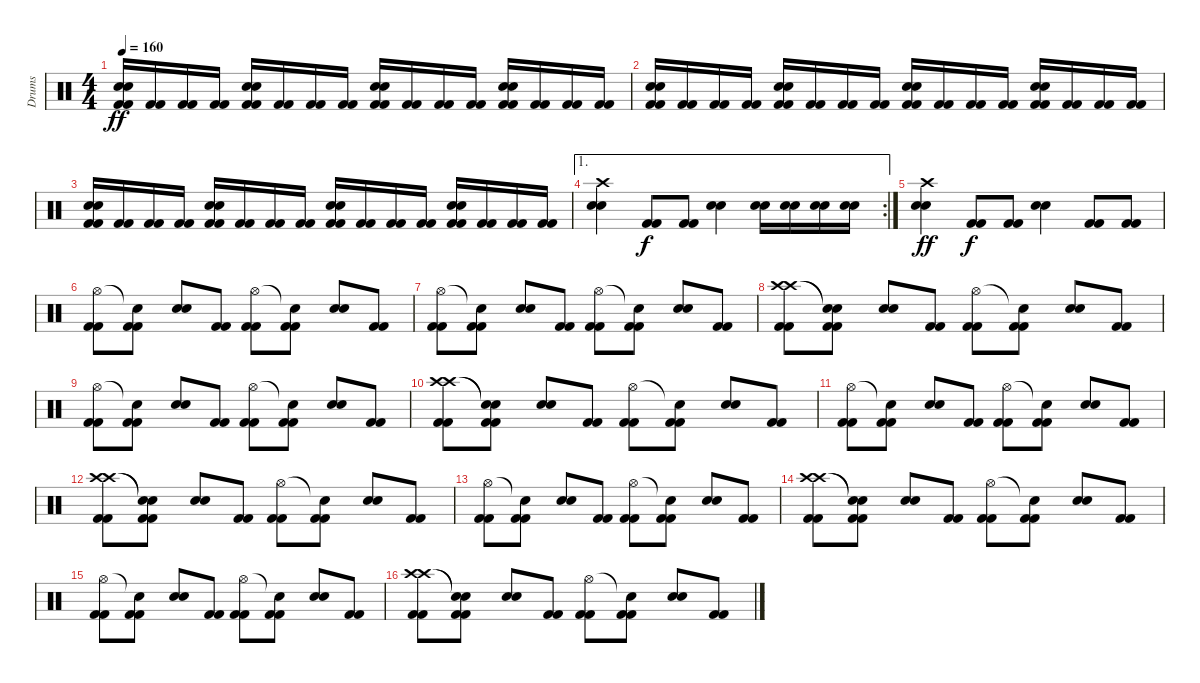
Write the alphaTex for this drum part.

\track ("Drums" "Drums") {instrument percussion}
\staff {score}
\articulation defaults
\ts (4 4)
\tempo 160
\clef neutral
\ks c
("Electric Snare (hit)" "Electric Snare (hit)" "Kick (hit) 2" "Kick (hit) 2").16{dy ff} ("Kick (hit) 2" "Kick (hit) 2").16 ("Kick (hit) 2" "Kick (hit) 2").16 ("Kick (hit) 2" "Kick (hit) 2").16 ("Electric Snare (hit)" "Electric Snare (hit)" "Kick (hit) 2" "Kick (hit) 2").16 ("Kick (hit) 2" "Kick (hit) 2").16 ("Kick (hit) 2" "Kick (hit) 2").16 ("Kick (hit) 2" "Kick (hit) 2").16 ("Electric Snare (hit)" "Electric Snare (hit)" "Kick (hit) 2" "Kick (hit) 2").16 ("Kick (hit) 2" "Kick (hit) 2").16 ("Kick (hit) 2" "Kick (hit) 2").16 ("Kick (hit) 2" "Kick (hit) 2").16 ("Electric Snare (hit)" "Electric Snare (hit)" "Kick (hit) 2" "Kick (hit) 2").16 ("Kick (hit) 2" "Kick (hit) 2").16 ("Kick (hit) 2" "Kick (hit) 2").16 ("Kick (hit) 2" "Kick (hit) 2").16 |
("Electric Snare (hit)" "Electric Snare (hit)" "Kick (hit) 2" "Kick (hit) 2").16 ("Kick (hit) 2" "Kick (hit) 2").16 ("Kick (hit) 2" "Kick (hit) 2").16 ("Kick (hit) 2" "Kick (hit) 2").16 ("Electric Snare (hit)" "Electric Snare (hit)" "Kick (hit) 2" "Kick (hit) 2").16 ("Kick (hit) 2" "Kick (hit) 2").16 ("Kick (hit) 2" "Kick (hit) 2").16 ("Kick (hit) 2" "Kick (hit) 2").16 ("Electric Snare (hit)" "Electric Snare (hit)" "Kick (hit) 2" "Kick (hit) 2").16 ("Kick (hit) 2" "Kick (hit) 2").16 ("Kick (hit) 2" "Kick (hit) 2").16 ("Kick (hit) 2" "Kick (hit) 2").16 ("Electric Snare (hit)" "Electric Snare (hit)" "Kick (hit) 2" "Kick (hit) 2").16 ("Kick (hit) 2" "Kick (hit) 2").16 ("Kick (hit) 2" "Kick (hit) 2").16 ("Kick (hit) 2" "Kick (hit) 2").16 |
("Electric Snare (hit)" "Electric Snare (hit)" "Kick (hit) 2" "Kick (hit) 2").16 ("Kick (hit) 2" "Kick (hit) 2").16 ("Kick (hit) 2" "Kick (hit) 2").16 ("Kick (hit) 2" "Kick (hit) 2").16 ("Electric Snare (hit)" "Electric Snare (hit)" "Kick (hit) 2" "Kick (hit) 2").16 ("Kick (hit) 2" "Kick (hit) 2").16 ("Kick (hit) 2" "Kick (hit) 2").16 ("Kick (hit) 2" "Kick (hit) 2").16 ("Electric Snare (hit)" "Electric Snare (hit)" "Kick (hit) 2" "Kick (hit) 2").16 ("Kick (hit) 2" "Kick (hit) 2").16 ("Kick (hit) 2" "Kick (hit) 2").16 ("Kick (hit) 2" "Kick (hit) 2").16 ("Electric Snare (hit)" "Electric Snare (hit)" "Kick (hit) 2" "Kick (hit) 2").16 ("Kick (hit) 2" "Kick (hit) 2").16 ("Kick (hit) 2" "Kick (hit) 2").16 ("Kick (hit) 2" "Kick (hit) 2").16 |
\ae 1
\rc 2
("Crash high (hit)" "Electric Snare (hit)" "Electric Snare (hit)").4 ("Kick (hit) 2" "Kick (hit) 2").8{dy f} ("Kick (hit) 2" "Kick (hit) 2").8 ("Electric Snare (hit)" "Electric Snare (hit)").4 ("Snare (hit) 2" "Snare (hit) 2").16 ("Snare (hit) 2" "Snare (hit) 2").16 ("Snare (hit) 2" "Snare (hit) 2").16 ("Snare (hit) 2" "Snare (hit) 2").16 |
("Crash high (hit)" "Electric Snare (hit)" "Electric Snare (hit)").4{dy ff} ("Kick (hit) 2" "Kick (hit) 2").8{dy f} ("Kick (hit) 2" "Kick (hit) 2").8 ("Electric Snare (hit)" "Electric Snare (hit)").4 ("Kick (hit) 2" "Kick (hit) 2").8 ("Kick (hit) 2" "Kick (hit) 2").8 |
("Hi-Hat (open)" "Kick (hit) 2" "Kick (hit) 2").8 ("Snare (hit)"{t} "Kick (hit) 2" "Kick (hit) 2").8 ("Electric Snare (hit)" "Electric Snare (hit)").8 ("Kick (hit) 2" "Kick (hit) 2").8 ("Hi-Hat (open)" "Kick (hit) 2" "Kick (hit) 2").8 ("Snare (hit)"{t} "Kick (hit) 2" "Kick (hit) 2").8 ("Electric Snare (hit)" "Electric Snare (hit)").8 ("Kick (hit) 2" "Kick (hit) 2").8 |
("Hi-Hat (open)" "Kick (hit) 2" "Kick (hit) 2").8 ("Snare (hit)"{t} "Kick (hit) 2" "Kick (hit) 2").8 ("Electric Snare (hit)" "Electric Snare (hit)").8 ("Kick (hit) 2" "Kick (hit) 2").8 ("Hi-Hat (open)" "Kick (hit) 2" "Kick (hit) 2").8 ("Snare (hit)"{t} "Kick (hit) 2" "Kick (hit) 2").8 ("Electric Snare (hit)" "Electric Snare (hit)").8 ("Kick (hit) 2" "Kick (hit) 2").8 |
("Crash high (hit)" "Crash high (hit)" "Kick (hit) 2" "Kick (hit) 2").8 ("Snare (hit)"{t} "Snare (hit)"{t} "Kick (hit) 2" "Kick (hit) 2").8 ("Electric Snare (hit)" "Electric Snare (hit)").8 ("Kick (hit) 2" "Kick (hit) 2").8 ("Hi-Hat (open)" "Kick (hit) 2" "Kick (hit) 2").8 ("Snare (hit)"{t} "Kick (hit) 2" "Kick (hit) 2").8 ("Electric Snare (hit)" "Electric Snare (hit)").8 ("Kick (hit) 2" "Kick (hit) 2").8 |
("Hi-Hat (open)" "Kick (hit) 2" "Kick (hit) 2").8 ("Snare (hit)"{t} "Kick (hit) 2" "Kick (hit) 2").8 ("Electric Snare (hit)" "Electric Snare (hit)").8 ("Kick (hit) 2" "Kick (hit) 2").8 ("Hi-Hat (open)" "Kick (hit) 2" "Kick (hit) 2").8 ("Snare (hit)"{t} "Kick (hit) 2" "Kick (hit) 2").8 ("Electric Snare (hit)" "Electric Snare (hit)").8 ("Kick (hit) 2" "Kick (hit) 2").8 |
("Crash high (hit)" "Crash high (hit)" "Kick (hit) 2" "Kick (hit) 2").8 ("Snare (hit)"{t} "Snare (hit)"{t} "Kick (hit) 2" "Kick (hit) 2").8 ("Electric Snare (hit)" "Electric Snare (hit)").8 ("Kick (hit) 2" "Kick (hit) 2").8 ("Hi-Hat (open)" "Kick (hit) 2" "Kick (hit) 2").8 ("Snare (hit)"{t} "Kick (hit) 2" "Kick (hit) 2").8 ("Electric Snare (hit)" "Electric Snare (hit)").8 ("Kick (hit) 2" "Kick (hit) 2").8 |
("Hi-Hat (open)" "Kick (hit) 2" "Kick (hit) 2").8 ("Snare (hit)"{t} "Kick (hit) 2" "Kick (hit) 2").8 ("Electric Snare (hit)" "Electric Snare (hit)").8 ("Kick (hit) 2" "Kick (hit) 2").8 ("Hi-Hat (open)" "Kick (hit) 2" "Kick (hit) 2").8 ("Snare (hit)"{t} "Kick (hit) 2" "Kick (hit) 2").8 ("Electric Snare (hit)" "Electric Snare (hit)").8 ("Kick (hit) 2" "Kick (hit) 2").8 |
("Crash high (hit)" "Crash high (hit)" "Kick (hit) 2" "Kick (hit) 2").8 ("Snare (hit)"{t} "Snare (hit)"{t} "Kick (hit) 2" "Kick (hit) 2").8 ("Electric Snare (hit)" "Electric Snare (hit)").8 ("Kick (hit) 2" "Kick (hit) 2").8 ("Hi-Hat (open)" "Kick (hit) 2" "Kick (hit) 2").8 ("Snare (hit)"{t} "Kick (hit) 2" "Kick (hit) 2").8 ("Electric Snare (hit)" "Electric Snare (hit)").8 ("Kick (hit) 2" "Kick (hit) 2").8 |
("Hi-Hat (open)" "Kick (hit) 2" "Kick (hit) 2").8 ("Snare (hit)"{t} "Kick (hit) 2" "Kick (hit) 2").8 ("Electric Snare (hit)" "Electric Snare (hit)").8 ("Kick (hit) 2" "Kick (hit) 2").8 ("Hi-Hat (open)" "Kick (hit) 2" "Kick (hit) 2").8 ("Snare (hit)"{t} "Kick (hit) 2" "Kick (hit) 2").8 ("Electric Snare (hit)" "Electric Snare (hit)").8 ("Kick (hit) 2" "Kick (hit) 2").8 |
("Crash high (hit)" "Crash high (hit)" "Kick (hit) 2" "Kick (hit) 2").8 ("Snare (hit)"{t} "Snare (hit)"{t} "Kick (hit) 2" "Kick (hit) 2").8 ("Electric Snare (hit)" "Electric Snare (hit)").8 ("Kick (hit) 2" "Kick (hit) 2").8 ("Hi-Hat (open)" "Kick (hit) 2" "Kick (hit) 2").8 ("Snare (hit)"{t} "Kick (hit) 2" "Kick (hit) 2").8 ("Electric Snare (hit)" "Electric Snare (hit)").8 ("Kick (hit) 2" "Kick (hit) 2").8 |
("Hi-Hat (open)" "Kick (hit) 2" "Kick (hit) 2").8 ("Snare (hit)"{t} "Kick (hit) 2" "Kick (hit) 2").8 ("Electric Snare (hit)" "Electric Snare (hit)").8 ("Kick (hit) 2" "Kick (hit) 2").8 ("Hi-Hat (open)" "Kick (hit) 2" "Kick (hit) 2").8 ("Snare (hit)"{t} "Kick (hit) 2" "Kick (hit) 2").8 ("Electric Snare (hit)" "Electric Snare (hit)").8 ("Kick (hit) 2" "Kick (hit) 2").8 |
("Crash high (hit)" "Crash high (hit)" "Kick (hit) 2" "Kick (hit) 2").8 ("Snare (hit)"{t} "Snare (hit)"{t} "Kick (hit) 2" "Kick (hit) 2").8 ("Electric Snare (hit)" "Electric Snare (hit)").8 ("Kick (hit) 2" "Kick (hit) 2").8 ("Hi-Hat (open)" "Kick (hit) 2" "Kick (hit) 2").8 ("Snare (hit)"{t} "Kick (hit) 2" "Kick (hit) 2").8 ("Electric Snare (hit)" "Electric Snare (hit)").8 ("Kick (hit) 2" "Kick (hit) 2").8
